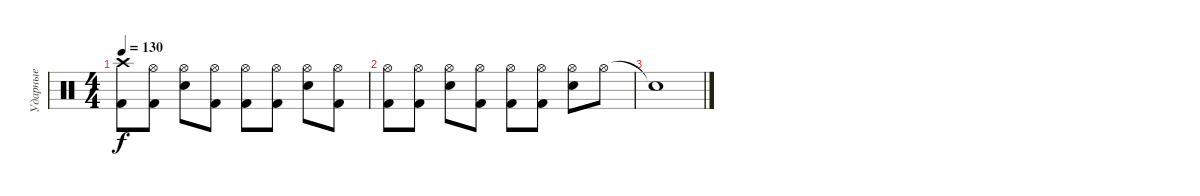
\track ("Ударные" "Ударные") {instrument percussion}
\staff {score}
\articulation defaults
\ts (4 4)
\tempo 130
\clef neutral
\ks c
("Crash high (hit)" "Kick (hit) 2").8{dy f} ("Hi-Hat (open)" "Kick (hit) 2").8 ("Hi-Hat (open)" "Snare (hit) 2").8 ("Hi-Hat (open)" "Kick (hit) 2").8 ("Hi-Hat (open)" "Kick (hit) 2").8 ("Hi-Hat (open)" "Kick (hit) 2").8 ("Hi-Hat (open)" "Snare (hit) 2").8 ("Hi-Hat (open)" "Kick (hit) 2").8 |
("Hi-Hat (open)" "Kick (hit) 2").8 ("Hi-Hat (open)" "Kick (hit) 2").8 ("Hi-Hat (open)" "Snare (hit) 2").8 ("Hi-Hat (open)" "Kick (hit) 2").8 ("Hi-Hat (open)" "Kick (hit) 2").8 ("Hi-Hat (open)" "Kick (hit) 2").8 ("Hi-Hat (open)" "Snare (hit) 2").8 "Hi-Hat (open)".8 |
"Snare (hit)"{t}.1{volume 0}
